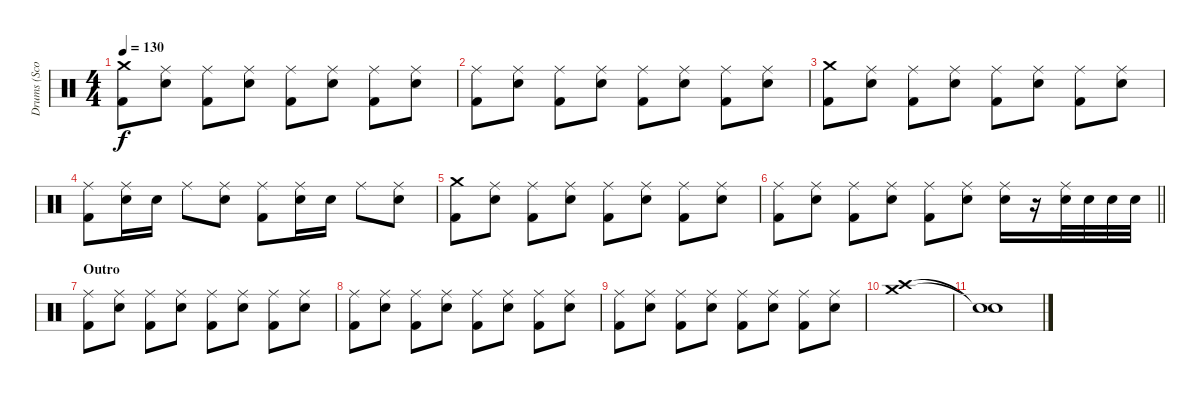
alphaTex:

\track ("Drums (Scott Raynor)" "Drums (Sco") {instrument percussion}
\staff {score}
\articulation defaults
\ts (4 4)
\tempo 130
\clef neutral
\ks c
("Crash medium (hit)" "Kick (hit) 2").8{dy f} ("Ride (middle)" "Snare (hit) 2").8 ("Ride (middle)" "Kick (hit) 2").8 ("Ride (middle)" "Snare (hit) 2").8 ("Ride (middle)" "Kick (hit) 2").8 ("Ride (middle)" "Snare (hit) 2").8 ("Ride (middle)" "Kick (hit) 2").8 ("Ride (middle)" "Snare (hit) 2").8 |
("Ride (middle)" "Kick (hit) 2").8 ("Ride (middle)" "Snare (hit) 2").8 ("Ride (middle)" "Kick (hit) 2").8 ("Ride (middle)" "Snare (hit) 2").8 ("Ride (middle)" "Kick (hit) 2").8 ("Ride (middle)" "Snare (hit) 2").8 ("Ride (middle)" "Kick (hit) 2").8 ("Ride (middle)" "Snare (hit) 2").8 |
("Crash medium (hit)" "Kick (hit) 2").8 ("Ride (middle)" "Snare (hit) 2").8 ("Ride (middle)" "Kick (hit) 2").8 ("Ride (middle)" "Snare (hit) 2").8 ("Ride (middle)" "Kick (hit) 2").8 ("Ride (middle)" "Snare (hit) 2").8 ("Ride (middle)" "Kick (hit) 2").8 ("Ride (middle)" "Snare (hit) 2").8 |
("Ride (middle)" "Kick (hit) 2").8 ("Ride (middle)" "Snare (hit) 2").16 "Snare (hit) 2".16 "Ride (middle)".8 ("Ride (middle)" "Snare (hit) 2").8 ("Ride (middle)" "Kick (hit) 2").8 ("Ride (middle)" "Snare (hit) 2").16 "Snare (hit) 2".16 "Ride (middle)".8 ("Ride (middle)" "Snare (hit) 2").8 |
("Crash medium (hit)" "Kick (hit) 2").8 ("Ride (middle)" "Snare (hit) 2").8 ("Ride (middle)" "Kick (hit) 2").8 ("Ride (middle)" "Snare (hit) 2").8 ("Ride (middle)" "Kick (hit) 2").8 ("Ride (middle)" "Snare (hit) 2").8 ("Ride (middle)" "Kick (hit) 2").8 ("Ride (middle)" "Snare (hit) 2").8 |
\barLineRight lightlight
("Ride (middle)" "Kick (hit) 2").8 ("Ride (middle)" "Snare (hit) 2").8 ("Ride (middle)" "Kick (hit) 2").8 ("Ride (middle)" "Snare (hit) 2").8 ("Ride (middle)" "Kick (hit) 2").8 ("Ride (middle)" "Snare (hit) 2").8 ("Ride (middle)" "Snare (hit) 2").16 r.16 ("Ride (middle)" "Snare (hit) 2").32 "Snare (hit) 2".32 "Snare (hit) 2".32 "Snare (hit) 2".32 |
\section ("" "Outro")
("Ride (middle)" "Kick (hit) 2").8 ("Ride (middle)" "Snare (hit) 2").8 ("Ride (middle)" "Kick (hit) 2").8 ("Ride (middle)" "Snare (hit) 2").8 ("Ride (middle)" "Kick (hit) 2").8 ("Ride (middle)" "Snare (hit) 2").8 ("Ride (middle)" "Kick (hit) 2").8 ("Ride (middle)" "Snare (hit) 2").8 |
("Ride (middle)" "Kick (hit) 2").8 ("Ride (middle)" "Snare (hit) 2").8 ("Ride (middle)" "Kick (hit) 2").8 ("Ride (middle)" "Snare (hit) 2").8 ("Ride (middle)" "Kick (hit) 2").8 ("Ride (middle)" "Snare (hit) 2").8 ("Ride (middle)" "Kick (hit) 2").8 ("Ride (middle)" "Snare (hit) 2").8 |
("Ride (middle)" "Kick (hit) 2").8 ("Ride (middle)" "Snare (hit) 2").8 ("Ride (middle)" "Kick (hit) 2").8 ("Ride (middle)" "Snare (hit) 2").8 ("Ride (middle)" "Kick (hit) 2").8 ("Ride (middle)" "Snare (hit) 2").8 ("Ride (middle)" "Kick (hit) 2").8 ("Ride (middle)" "Snare (hit) 2").8 |
("Crash high (hit)" "Crash medium (hit)").1 |
("Snare (hit)"{t} "Snare (hit)"{t}).1
